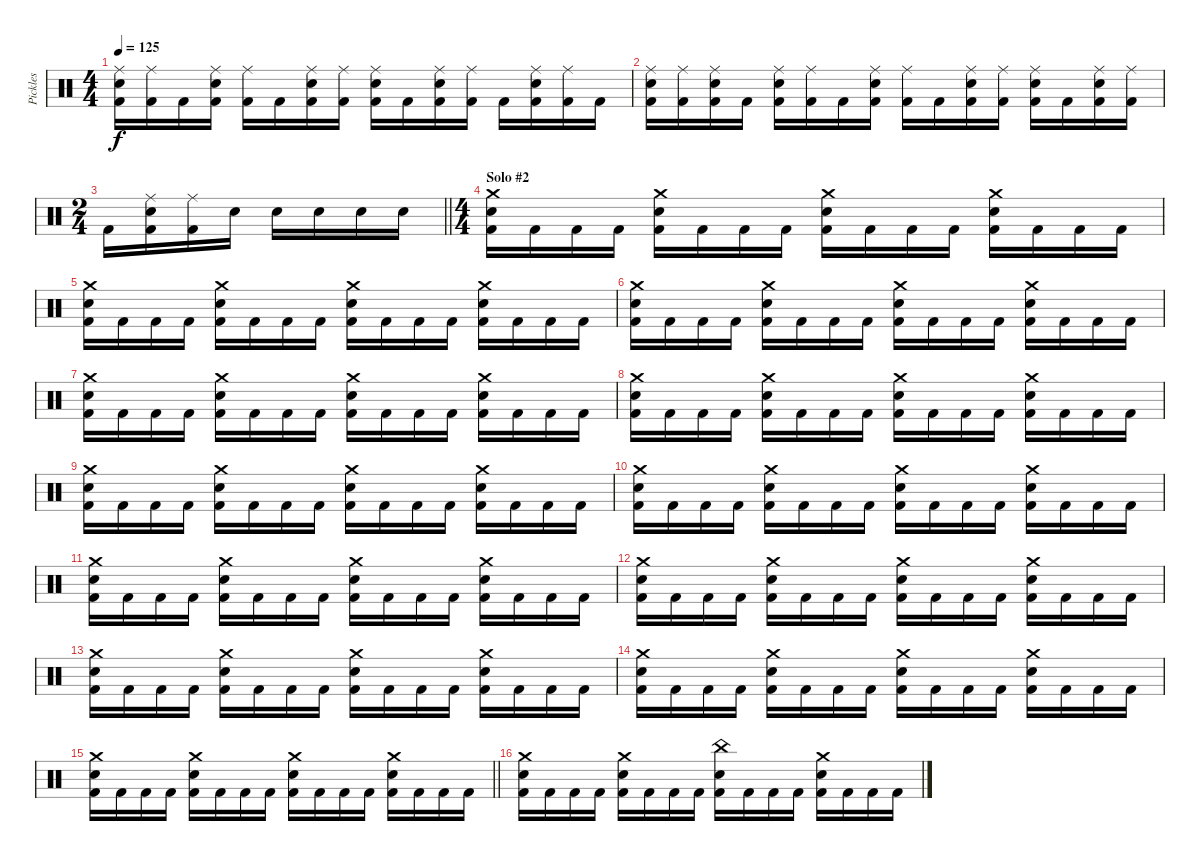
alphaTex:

\track ("Pickles" "Pickles") {instrument percussion}
\staff {score}
\articulation defaults
\ts (4 4)
\tempo 125
\clef neutral
\ks c
("Ride (middle)" "Electric Snare (hit)" "Kick (hit) 2").16{dy f} ("Ride (middle)" "Kick (hit) 2").16 "Kick (hit) 2".16 ("Ride (middle)" "Electric Snare (hit)" "Kick (hit) 2").16 ("Ride (middle)" "Kick (hit) 2").16 "Kick (hit) 2".16 ("Ride (middle)" "Electric Snare (hit)" "Kick (hit) 2").16 ("Ride (middle)" "Kick (hit) 2").16 ("Ride (middle)" "Electric Snare (hit)" "Kick (hit) 2").16 "Kick (hit) 2".16 ("Ride (middle)" "Electric Snare (hit)" "Kick (hit) 2").16 ("Ride (middle)" "Kick (hit) 2").16 "Kick (hit) 2".16 ("Ride (middle)" "Electric Snare (hit)" "Kick (hit) 2").16 ("Ride (middle)" "Kick (hit) 2").16 "Kick (hit) 2".16 |
("Ride (middle)" "Electric Snare (hit)" "Kick (hit) 2").16 ("Ride (middle)" "Kick (hit) 2").16 ("Ride (middle)" "Electric Snare (hit)" "Kick (hit) 2").16 "Kick (hit) 2".16 ("Ride (middle)" "Electric Snare (hit)" "Kick (hit) 2").16 ("Ride (middle)" "Kick (hit) 2").16 "Kick (hit) 2".16 ("Ride (middle)" "Electric Snare (hit)" "Kick (hit) 2").16 ("Ride (middle)" "Kick (hit) 2").16 "Kick (hit) 2".16 ("Ride (middle)" "Electric Snare (hit)" "Kick (hit) 2").16 ("Ride (middle)" "Kick (hit) 2").16 ("Ride (middle)" "Electric Snare (hit)" "Kick (hit) 2").16 "Kick (hit) 2".16 ("Ride (middle)" "Electric Snare (hit)" "Kick (hit) 2").16 ("Ride (middle)" "Kick (hit) 2").16 |
\ts (2 4)
\barLineRight lightlight "Kick (hit) 2".16
("Ride (middle)" "Electric Snare (hit)" "Kick (hit) 2").16 ("Ride (middle)" "Kick (hit) 2").16 "Electric Snare (hit)".16 "Electric Snare (hit)".16 "Electric Snare (hit)".16 "Electric Snare (hit)".16 "Electric Snare (hit)".16 |
\ts (4 4)
\section ("" "Solo #2")
("Crash medium (hit)" "Electric Snare (hit)" "Kick (hit) 2").16 "Kick (hit) 2".16 "Kick (hit) 2".16 "Kick (hit) 2".16 ("Crash medium (hit)" "Electric Snare (hit)" "Kick (hit) 2").16 "Kick (hit) 2".16 "Kick (hit) 2".16 "Kick (hit) 2".16 ("Crash medium (hit)" "Electric Snare (hit)" "Kick (hit) 2").16 "Kick (hit) 2".16 "Kick (hit) 2".16 "Kick (hit) 2".16 ("Crash medium (hit)" "Electric Snare (hit)" "Kick (hit) 2").16 "Kick (hit) 2".16 "Kick (hit) 2".16 "Kick (hit) 2".16 |
("Crash medium (hit)" "Electric Snare (hit)" "Kick (hit) 2").16 "Kick (hit) 2".16 "Kick (hit) 2".16 "Kick (hit) 2".16 ("Crash medium (hit)" "Electric Snare (hit)" "Kick (hit) 2").16 "Kick (hit) 2".16 "Kick (hit) 2".16 "Kick (hit) 2".16 ("Crash medium (hit)" "Electric Snare (hit)" "Kick (hit) 2").16 "Kick (hit) 2".16 "Kick (hit) 2".16 "Kick (hit) 2".16 ("Crash medium (hit)" "Electric Snare (hit)" "Kick (hit) 2").16 "Kick (hit) 2".16 "Kick (hit) 2".16 "Kick (hit) 2".16 |
("Crash medium (hit)" "Electric Snare (hit)" "Kick (hit) 2").16 "Kick (hit) 2".16 "Kick (hit) 2".16 "Kick (hit) 2".16 ("Crash medium (hit)" "Electric Snare (hit)" "Kick (hit) 2").16 "Kick (hit) 2".16 "Kick (hit) 2".16 "Kick (hit) 2".16 ("Crash medium (hit)" "Electric Snare (hit)" "Kick (hit) 2").16 "Kick (hit) 2".16 "Kick (hit) 2".16 "Kick (hit) 2".16 ("Crash medium (hit)" "Electric Snare (hit)" "Kick (hit) 2").16 "Kick (hit) 2".16 "Kick (hit) 2".16 "Kick (hit) 2".16 |
("Crash medium (hit)" "Electric Snare (hit)" "Kick (hit) 2").16 "Kick (hit) 2".16 "Kick (hit) 2".16 "Kick (hit) 2".16 ("Crash medium (hit)" "Electric Snare (hit)" "Kick (hit) 2").16 "Kick (hit) 2".16 "Kick (hit) 2".16 "Kick (hit) 2".16 ("Crash medium (hit)" "Electric Snare (hit)" "Kick (hit) 2").16 "Kick (hit) 2".16 "Kick (hit) 2".16 "Kick (hit) 2".16 ("Crash medium (hit)" "Electric Snare (hit)" "Kick (hit) 2").16 "Kick (hit) 2".16 "Kick (hit) 2".16 "Kick (hit) 2".16 |
("Crash medium (hit)" "Electric Snare (hit)" "Kick (hit) 2").16 "Kick (hit) 2".16 "Kick (hit) 2".16 "Kick (hit) 2".16 ("Crash medium (hit)" "Electric Snare (hit)" "Kick (hit) 2").16 "Kick (hit) 2".16 "Kick (hit) 2".16 "Kick (hit) 2".16 ("Crash medium (hit)" "Electric Snare (hit)" "Kick (hit) 2").16 "Kick (hit) 2".16 "Kick (hit) 2".16 "Kick (hit) 2".16 ("Crash medium (hit)" "Electric Snare (hit)" "Kick (hit) 2").16 "Kick (hit) 2".16 "Kick (hit) 2".16 "Kick (hit) 2".16 |
("Crash medium (hit)" "Electric Snare (hit)" "Kick (hit) 2").16 "Kick (hit) 2".16 "Kick (hit) 2".16 "Kick (hit) 2".16 ("Crash medium (hit)" "Electric Snare (hit)" "Kick (hit) 2").16 "Kick (hit) 2".16 "Kick (hit) 2".16 "Kick (hit) 2".16 ("Crash medium (hit)" "Electric Snare (hit)" "Kick (hit) 2").16 "Kick (hit) 2".16 "Kick (hit) 2".16 "Kick (hit) 2".16 ("Crash medium (hit)" "Electric Snare (hit)" "Kick (hit) 2").16 "Kick (hit) 2".16 "Kick (hit) 2".16 "Kick (hit) 2".16 |
("Crash medium (hit)" "Electric Snare (hit)" "Kick (hit) 2").16 "Kick (hit) 2".16 "Kick (hit) 2".16 "Kick (hit) 2".16 ("Crash medium (hit)" "Electric Snare (hit)" "Kick (hit) 2").16 "Kick (hit) 2".16 "Kick (hit) 2".16 "Kick (hit) 2".16 ("Crash medium (hit)" "Electric Snare (hit)" "Kick (hit) 2").16 "Kick (hit) 2".16 "Kick (hit) 2".16 "Kick (hit) 2".16 ("Crash medium (hit)" "Electric Snare (hit)" "Kick (hit) 2").16 "Kick (hit) 2".16 "Kick (hit) 2".16 "Kick (hit) 2".16 |
("Crash medium (hit)" "Electric Snare (hit)" "Kick (hit) 2").16 "Kick (hit) 2".16 "Kick (hit) 2".16 "Kick (hit) 2".16 ("Crash medium (hit)" "Electric Snare (hit)" "Kick (hit) 2").16 "Kick (hit) 2".16 "Kick (hit) 2".16 "Kick (hit) 2".16 ("Crash medium (hit)" "Electric Snare (hit)" "Kick (hit) 2").16 "Kick (hit) 2".16 "Kick (hit) 2".16 "Kick (hit) 2".16 ("Crash medium (hit)" "Electric Snare (hit)" "Kick (hit) 2").16 "Kick (hit) 2".16 "Kick (hit) 2".16 "Kick (hit) 2".16 |
("Crash medium (hit)" "Electric Snare (hit)" "Kick (hit) 2").16 "Kick (hit) 2".16 "Kick (hit) 2".16 "Kick (hit) 2".16 ("Crash medium (hit)" "Electric Snare (hit)" "Kick (hit) 2").16 "Kick (hit) 2".16 "Kick (hit) 2".16 "Kick (hit) 2".16 ("Crash medium (hit)" "Electric Snare (hit)" "Kick (hit) 2").16 "Kick (hit) 2".16 "Kick (hit) 2".16 "Kick (hit) 2".16 ("Crash medium (hit)" "Electric Snare (hit)" "Kick (hit) 2").16 "Kick (hit) 2".16 "Kick (hit) 2".16 "Kick (hit) 2".16 |
("Crash medium (hit)" "Electric Snare (hit)" "Kick (hit) 2").16 "Kick (hit) 2".16 "Kick (hit) 2".16 "Kick (hit) 2".16 ("Crash medium (hit)" "Electric Snare (hit)" "Kick (hit) 2").16 "Kick (hit) 2".16 "Kick (hit) 2".16 "Kick (hit) 2".16 ("Crash medium (hit)" "Electric Snare (hit)" "Kick (hit) 2").16 "Kick (hit) 2".16 "Kick (hit) 2".16 "Kick (hit) 2".16 ("Crash medium (hit)" "Electric Snare (hit)" "Kick (hit) 2").16 "Kick (hit) 2".16 "Kick (hit) 2".16 "Kick (hit) 2".16 |
("Crash medium (hit)" "Electric Snare (hit)" "Kick (hit) 2").16 "Kick (hit) 2".16 "Kick (hit) 2".16 "Kick (hit) 2".16 ("Crash medium (hit)" "Electric Snare (hit)" "Kick (hit) 2").16 "Kick (hit) 2".16 "Kick (hit) 2".16 "Kick (hit) 2".16 ("Crash medium (hit)" "Electric Snare (hit)" "Kick (hit) 2").16 "Kick (hit) 2".16 "Kick (hit) 2".16 "Kick (hit) 2".16 ("Crash medium (hit)" "Electric Snare (hit)" "Kick (hit) 2").16 "Kick (hit) 2".16 "Kick (hit) 2".16 "Kick (hit) 2".16 |
\barLineRight lightlight
("Crash medium (hit)" "Electric Snare (hit)" "Kick (hit) 2").16 "Kick (hit) 2".16 "Kick (hit) 2".16 "Kick (hit) 2".16 ("Crash medium (hit)" "Electric Snare (hit)" "Kick (hit) 2").16 "Kick (hit) 2".16 "Kick (hit) 2".16 "Kick (hit) 2".16 ("Crash medium (hit)" "Electric Snare (hit)" "Kick (hit) 2").16 "Kick (hit) 2".16 "Kick (hit) 2".16 "Kick (hit) 2".16 ("Crash medium (hit)" "Electric Snare (hit)" "Kick (hit) 2").16 "Kick (hit) 2".16 "Kick (hit) 2".16 "Kick (hit) 2".16 |
("Crash medium (hit)" "Electric Snare (hit)" "Kick (hit) 2").16 "Kick (hit) 2".16 "Kick (hit) 2".16 "Kick (hit) 2".16 ("Crash medium (hit)" "Electric Snare (hit)" "Kick (hit) 2").16 "Kick (hit) 2".16 "Kick (hit) 2".16 "Kick (hit) 2".16 ("China (hit)" "Electric Snare (hit)" "Kick (hit) 2").16 "Kick (hit) 2".16 "Kick (hit) 2".16 "Kick (hit) 2".16 ("Crash medium (hit)" "Electric Snare (hit)" "Kick (hit) 2").16 "Kick (hit) 2".16 "Kick (hit) 2".16 "Kick (hit) 2".16
